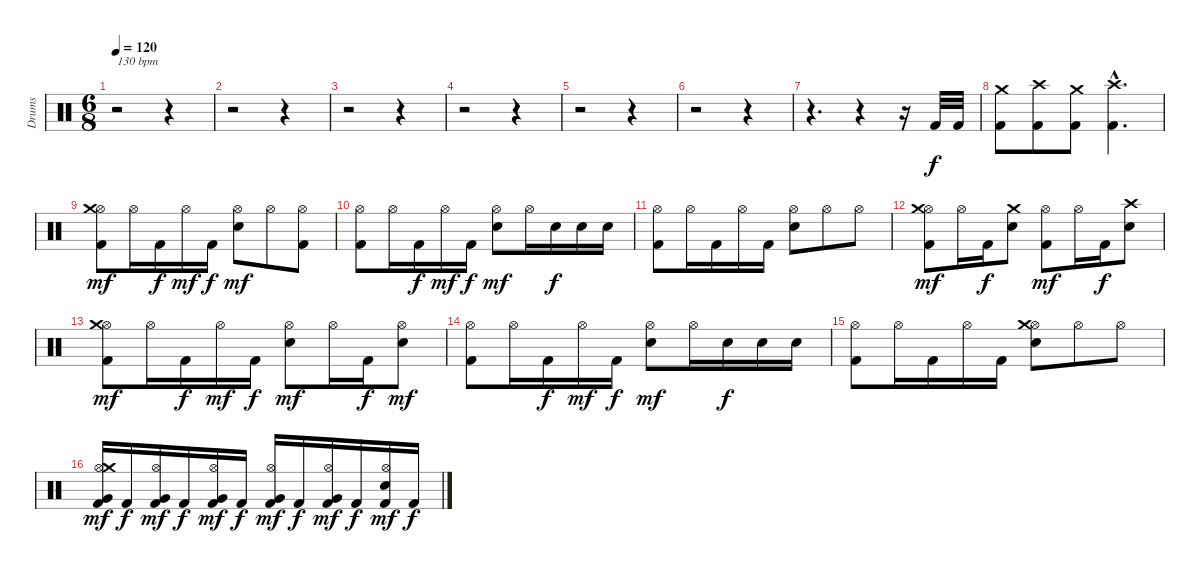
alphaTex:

\track ("Drums" "Drums") {instrument percussion}
\staff {score}
\articulation defaults
\ts (6 8)
\tempo 120
\clef neutral
\ks c
r.2{txt "130 bpm" dy f} r.4 |
r.2 r.4 |
r.2 r.4 |
r.2 r.4 |
r.2 r.4 |
r.2 r.4 |
r.4{d} r.4 r.16 "Kick (hit) 2".32 "Kick (hit) 2".32 |
("Kick (hit) 2" "Crash medium (hit)").8 ("Kick (hit) 2" "Crash high (hit)").8 ("Kick (hit) 2" "Crash medium (hit)").8 ("Kick (hit) 2"{hac} "Crash high (hit)"{hac}).4{d} |
("Kick (hit) 2" "Hi-Hat (open)" "Crash medium (hit)").8{dy mf} "Hi-Hat (open)".16 "Kick (hit) 2".16{dy f} "Hi-Hat (open)".16{dy mf} "Kick (hit) 2".16{dy f} ("Snare (hit) 2" "Hi-Hat (open)").8{dy mf} "Hi-Hat (open)".8 ("Kick (hit) 2" "Hi-Hat (open)").8 |
("Kick (hit) 2" "Hi-Hat (open)").8 "Hi-Hat (open)".16 "Kick (hit) 2".16{dy f} "Hi-Hat (open)".16{dy mf} "Kick (hit) 2".16{dy f} ("Snare (hit) 2" "Hi-Hat (open)").8{dy mf} "Hi-Hat (open)".16 "Snare (hit) 2".16{dy f} "Snare (hit) 2".16 "Snare (hit) 2".16 |
("Kick (hit) 2" "Hi-Hat (open)").8 "Hi-Hat (open)".16 "Kick (hit) 2".16 "Hi-Hat (open)".16 "Kick (hit) 2".16 ("Snare (hit) 2" "Hi-Hat (open)").8 "Hi-Hat (open)".8 "Hi-Hat (open)".8 |
("Kick (hit) 2" "Hi-Hat (open)" "Crash medium (hit)").8{dy mf} "Hi-Hat (open)".16 "Kick (hit) 2".16{dy f} ("Snare (hit) 2" "Crash medium (hit)").8 ("Kick (hit) 2" "Hi-Hat (open)").8{dy mf} "Hi-Hat (open)".16 "Kick (hit) 2".16{dy f} ("Snare (hit) 2" "Crash high (hit)").8 |
("Kick (hit) 2" "Hi-Hat (open)" "Crash medium (hit)").8{dy mf} "Hi-Hat (open)".16 "Kick (hit) 2".16{dy f} "Hi-Hat (open)".16{dy mf} "Kick (hit) 2".16{dy f} ("Snare (hit) 2" "Hi-Hat (open)").8{dy mf} "Hi-Hat (open)".16 "Kick (hit) 2".16{dy f} ("Snare (hit) 2" "Hi-Hat (open)").8{dy mf} |
("Kick (hit) 2" "Hi-Hat (open)").8 "Hi-Hat (open)".16 "Kick (hit) 2".16{dy f} "Hi-Hat (open)".16{dy mf} "Kick (hit) 2".16{dy f} ("Snare (hit) 2" "Hi-Hat (open)").8{dy mf} "Hi-Hat (open)".16 "Snare (hit) 2".16{dy f} "Snare (hit) 2".16 "Snare (hit) 2".16 |
("Kick (hit) 2" "Hi-Hat (open)").8 "Hi-Hat (open)".16 "Kick (hit) 2".16 "Hi-Hat (open)".16 "Kick (hit) 2".16 ("Snare (hit) 2" "Hi-Hat (open)" "Crash medium (hit)").8 "Hi-Hat (open)".8 "Hi-Hat (open)".8 |
("Kick (hit) 2" "Very Low Tom (hit)" "Hi-Hat (open)" "Crash medium (hit)").16{dy mf} "Kick (hit) 2".16{dy f} ("Kick (hit) 2" "Very Low Tom (hit)" "Hi-Hat (open)").16{dy mf} "Kick (hit) 2".16{dy f} ("Kick (hit) 2" "Very Low Tom (hit)" "Hi-Hat (open)").16{dy mf} "Kick (hit) 2".16{dy f} ("Kick (hit) 2" "Very Low Tom (hit)" "Hi-Hat (open)").16{dy mf} "Kick (hit) 2".16{dy f} ("Kick (hit) 2" "Very Low Tom (hit)" "Hi-Hat (open)").16{dy mf} "Kick (hit) 2".16{dy f} ("Kick (hit) 2" "Snare (hit) 2" "Hi-Hat (open)").16{dy mf} "Kick (hit) 2".16{dy f}
